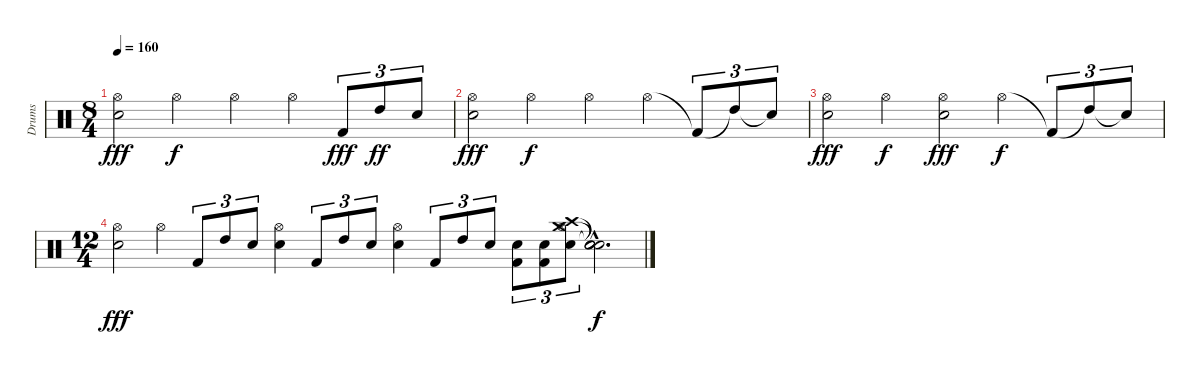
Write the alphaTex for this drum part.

\track ("Drums" "Drums") {instrument percussion}
\staff {score}
\articulation defaults
\ts (8 4)
\tempo 160
\clef neutral
\ks c
("Electric Snare (hit)" "Hi-Hat (open)").2{dy fff} "Hi-Hat (open)".2{dy f} "Hi-Hat (open)".2 "Hi-Hat (open)".4 "Kick (hit) 2".8{tu (3 2) dy fff} "High Tom (hit)".8{tu (3 2) dy ff} "Electric Snare (hit)".8{tu (3 2)} |
("Electric Snare (hit)" "Hi-Hat (open)").2{dy fff} "Hi-Hat (open)".2{dy f} "Hi-Hat (open)".2 "Hi-Hat (open)".4 "Kick (hit) 2"{t}.8{tu (3 2)} "High Tom (hit)"{t}.8{tu (3 2)} "Electric Snare (hit)"{t}.8{tu (3 2)} |
("Electric Snare (hit)" "Hi-Hat (open)").2{dy fff} "Hi-Hat (open)".2{dy f} ("Electric Snare (hit)" "Hi-Hat (open)").2{dy fff} "Hi-Hat (open)".4{dy f} "Kick (hit) 2"{t}.8{tu (3 2)} "High Tom (hit)"{t}.8{tu (3 2)} "Electric Snare (hit)"{t}.8{tu (3 2)} |
\ts (12 4)
("Electric Snare (hit)" "Hi-Hat (open)").2{dy fff} "Hi-Hat (open)".4 "Kick (hit) 2".8{tu (3 2)} "High Tom (hit)".8{tu (3 2)} "Electric Snare (hit)".8{tu (3 2)} ("Electric Snare (hit)" "Hi-Hat (open)").4 "Kick (hit) 2".8{tu (3 2)} "High Tom (hit)".8{tu (3 2)} "Electric Snare (hit)".8{tu (3 2)} ("Electric Snare (hit)" "Hi-Hat (open)").4 "Kick (hit) 2".8{tu (3 2)} "High Tom (hit)".8{tu (3 2)} "Electric Snare (hit)".8{tu (3 2)} ("Electric Snare (hit)" "Kick (hit) 2").8{tu (3 2)} ("Electric Snare (hit)" "Kick (hit) 2").8{tu (3 2)} ("Electric Snare (hit)" "Hi-Hat (open)" "Crash medium (hit)" "Crash high (hit)").8{tu (3 2)} ("Snare (hit)"{hac t} "Snare (hit)"{hac t} "Snare (hit)"{hac t} "Snare (hit)"{hac t}).2{d dy f}
